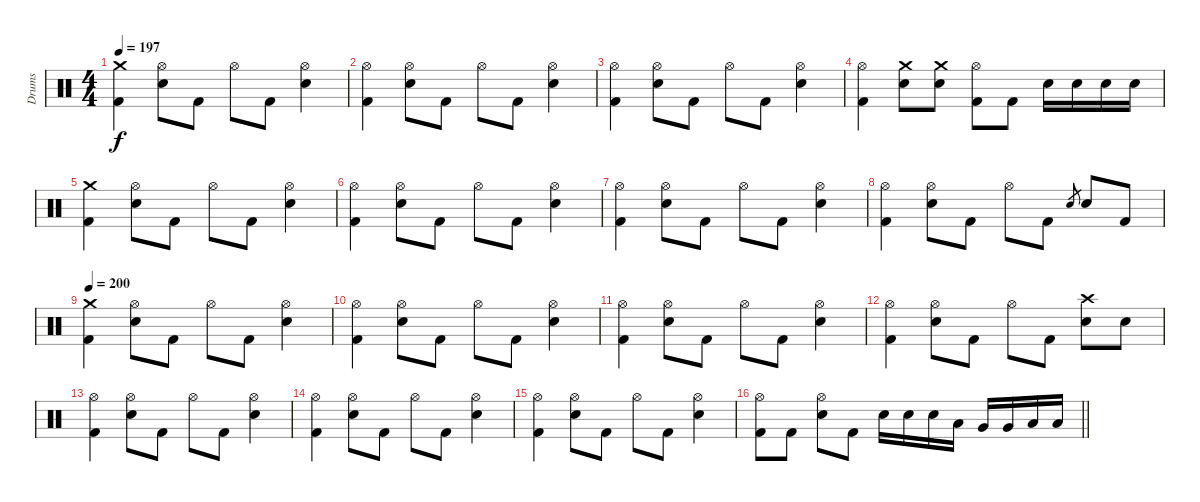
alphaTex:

\track ("Drums" "Drums") {instrument percussion}
\staff {score}
\articulation defaults
\ts (4 4)
\tempo 197
\clef neutral
\ks c
("Crash medium (hit)" "Kick (hit) 2").4{dy f} ("Hi-Hat (open)" "Electric Snare (hit)").8 "Kick (hit) 2".8 "Hi-Hat (open)".8 "Kick (hit) 2".8 ("Hi-Hat (open)" "Electric Snare (hit)").4 |
("Hi-Hat (open)" "Kick (hit) 2").4 ("Hi-Hat (open)" "Electric Snare (hit)").8 "Kick (hit) 2".8 "Hi-Hat (open)".8 "Kick (hit) 2".8 ("Hi-Hat (open)" "Electric Snare (hit)").4 |
("Hi-Hat (open)" "Kick (hit) 2").4 ("Hi-Hat (open)" "Electric Snare (hit)").8 "Kick (hit) 2".8 "Hi-Hat (open)".8 "Kick (hit) 2".8 ("Hi-Hat (open)" "Electric Snare (hit)").4 |
("Hi-Hat (open)" "Kick (hit) 2").4 ("Crash medium (hit)" "Electric Snare (hit)").8 ("Crash medium (hit)" "Electric Snare (hit)").8 ("Hi-Hat (open)" "Kick (hit) 2").8 "Kick (hit) 2".8 "Electric Snare (hit)".16 "Electric Snare (hit)".16 "Electric Snare (hit)".16 "Electric Snare (hit)".16 |
("Crash medium (hit)" "Kick (hit) 2").4 ("Hi-Hat (open)" "Electric Snare (hit)").8 "Kick (hit) 2".8 "Hi-Hat (open)".8 "Kick (hit) 2".8 ("Hi-Hat (open)" "Electric Snare (hit)").4 |
("Hi-Hat (open)" "Kick (hit) 2").4 ("Hi-Hat (open)" "Electric Snare (hit)").8 "Kick (hit) 2".8 "Hi-Hat (open)".8 "Kick (hit) 2".8 ("Hi-Hat (open)" "Electric Snare (hit)").4 |
("Hi-Hat (open)" "Kick (hit) 2").4 ("Hi-Hat (open)" "Electric Snare (hit)").8 "Kick (hit) 2".8 "Hi-Hat (open)".8 "Kick (hit) 2".8 ("Hi-Hat (open)" "Electric Snare (hit)").4 |
("Hi-Hat (open)" "Kick (hit) 2").4 ("Hi-Hat (open)" "Electric Snare (hit)").8 "Kick (hit) 2".8 "Hi-Hat (open)".8 "Kick (hit) 2".8 "Electric Snare (hit)".8{gr} "Electric Snare (hit)".8 "Kick (hit) 2".8 |
\tempo 200
("Crash medium (hit)" "Kick (hit) 2").4 ("Hi-Hat (open)" "Electric Snare (hit)").8 "Kick (hit) 2".8 "Hi-Hat (open)".8 "Kick (hit) 2".8 ("Hi-Hat (open)" "Electric Snare (hit)").4 |
("Hi-Hat (open)" "Kick (hit) 2").4 ("Hi-Hat (open)" "Electric Snare (hit)").8 "Kick (hit) 2".8 "Hi-Hat (open)".8 "Kick (hit) 2".8 ("Hi-Hat (open)" "Electric Snare (hit)").4 |
("Hi-Hat (open)" "Kick (hit) 2").4 ("Hi-Hat (open)" "Electric Snare (hit)").8 "Kick (hit) 2".8 "Hi-Hat (open)".8 "Kick (hit) 2".8 ("Hi-Hat (open)" "Electric Snare (hit)").4 |
("Hi-Hat (open)" "Kick (hit) 2").4 ("Hi-Hat (open)" "Electric Snare (hit)").8 "Kick (hit) 2".8 "Hi-Hat (open)".8 "Kick (hit) 2".8 ("Crash high (hit)" "Electric Snare (hit)").8 "Electric Snare (hit)".8 |
("Hi-Hat (open)" "Kick (hit) 2").4 ("Hi-Hat (open)" "Electric Snare (hit)").8 "Kick (hit) 2".8 "Hi-Hat (open)".8 "Kick (hit) 2".8 ("Hi-Hat (open)" "Electric Snare (hit)").4 |
("Hi-Hat (open)" "Kick (hit) 2").4 ("Hi-Hat (open)" "Electric Snare (hit)").8 "Kick (hit) 2".8 "Hi-Hat (open)".8 "Kick (hit) 2".8 ("Hi-Hat (open)" "Electric Snare (hit)").4 |
("Hi-Hat (open)" "Kick (hit) 2").4 ("Hi-Hat (open)" "Electric Snare (hit)").8 "Kick (hit) 2".8 "Hi-Hat (open)".8 "Kick (hit) 2".8 ("Hi-Hat (open)" "Electric Snare (hit)").4 |
\barLineRight lightlight
("Hi-Hat (open)" "Kick (hit) 2").8 "Kick (hit) 2".8 ("Hi-Hat (open)" "Electric Snare (hit)").8 "Kick (hit) 2".8 "Electric Snare (hit)".16 "Electric Snare (hit)".16 "Electric Snare (hit)".16 "Low Tom (hit)".16 "Very Low Tom (hit)".16 "Very Low Tom (hit)".16 "Low Floor Tom (hit)".16 "Low Floor Tom (hit)".16
